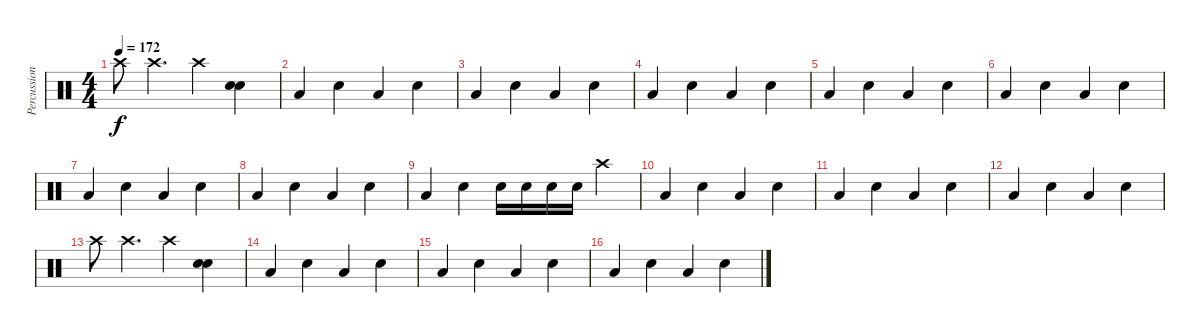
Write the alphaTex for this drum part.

\track ("Percussion" "Percussion") {instrument percussion}
\staff {score}
\articulation defaults
\ts (4 4)
\tempo 172
\clef neutral
\ks c "Crash high (hit)".8{dy f} "Crash high (hit)".4{d} "Crash high (hit)".4
("Snare (hit) 2" "Snare (hit) 2").4 |
"Low Tom (hit)".4 "Snare (hit) 2".4 "Low Tom (hit)".4 "Snare (hit) 2".4 |
"Low Tom (hit)".4 "Snare (hit) 2".4 "Low Tom (hit)".4 "Snare (hit) 2".4 |
"Low Tom (hit)".4 "Snare (hit) 2".4 "Low Tom (hit)".4 "Snare (hit) 2".4 |
"Low Tom (hit)".4 "Snare (hit) 2".4 "Low Tom (hit)".4 "Snare (hit) 2".4 |
"Low Tom (hit)".4 "Snare (hit) 2".4 "Low Tom (hit)".4 "Snare (hit) 2".4 |
"Low Tom (hit)".4 "Snare (hit) 2".4 "Low Tom (hit)".4 "Snare (hit) 2".4 |
"Low Tom (hit)".4 "Snare (hit) 2".4 "Low Tom (hit)".4 "Snare (hit) 2".4 |
"Low Tom (hit)".4 "Snare (hit) 2".4 "Snare (hit) 2".16 "Snare (hit) 2".16 "Snare (hit) 2".16 "Snare (hit) 2".16 "Crash high (hit)".4 |
"Low Tom (hit)".4 "Snare (hit) 2".4 "Low Tom (hit)".4 "Snare (hit) 2".4 |
"Low Tom (hit)".4 "Snare (hit) 2".4 "Low Tom (hit)".4 "Snare (hit) 2".4 |
"Low Tom (hit)".4 "Snare (hit) 2".4 "Low Tom (hit)".4 "Snare (hit) 2".4 |
"Crash high (hit)".8 "Crash high (hit)".4{d} "Crash high (hit)".4 ("Snare (hit) 2" "Snare (hit) 2").4 |
"Low Tom (hit)".4 "Snare (hit) 2".4 "Low Tom (hit)".4 "Snare (hit) 2".4 |
"Low Tom (hit)".4 "Snare (hit) 2".4 "Low Tom (hit)".4 "Snare (hit) 2".4 |
"Low Tom (hit)".4 "Snare (hit) 2".4 "Low Tom (hit)".4 "Snare (hit) 2".4
